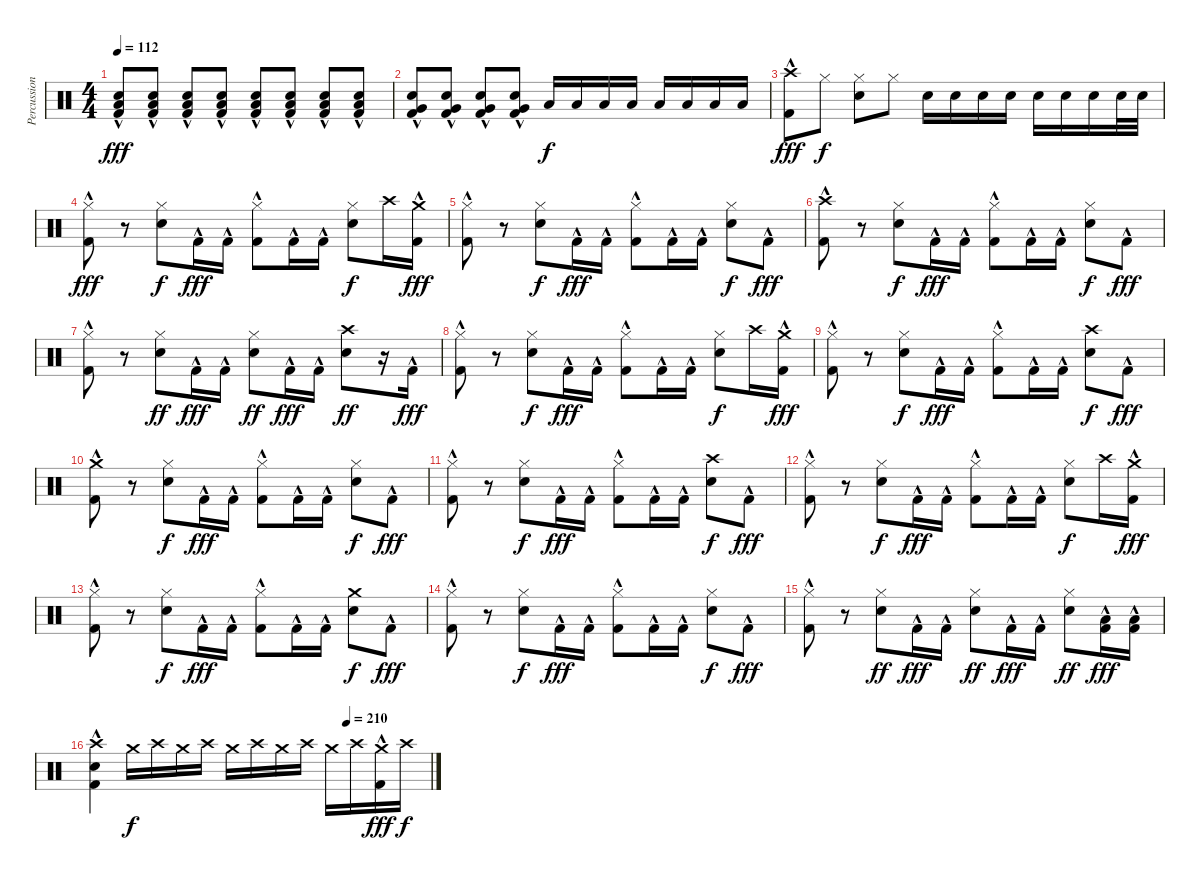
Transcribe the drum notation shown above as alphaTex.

\track ("Percussions" "Percussion") {instrument percussion}
\staff {score}
\articulation defaults
\ts (4 4)
\tempo 112
\clef neutral
\ks c
("Snare (hit) 2" "Low Floor Tom (hit)" "Kick (hit) 2"{hac}).8{dy fff} ("Snare (hit) 2" "Low Floor Tom (hit)" "Kick (hit) 2"{hac}).8 ("Snare (hit) 2" "Low Floor Tom (hit)" "Kick (hit) 2"{hac}).8 ("Snare (hit) 2" "Low Floor Tom (hit)" "Kick (hit) 2"{hac}).8 ("Snare (hit) 2" "Low Floor Tom (hit)" "Kick (hit) 2"{hac}).8 ("Snare (hit) 2" "Low Floor Tom (hit)" "Kick (hit) 2"{hac}).8 ("Snare (hit) 2" "Low Floor Tom (hit)" "Kick (hit) 2"{hac}).8 ("Snare (hit) 2" "Low Floor Tom (hit)" "Kick (hit) 2"{hac}).8 |
("Snare (hit) 2" "Very Low Tom (hit)" "Kick (hit) 2"{hac}).8 ("Snare (hit) 2" "Very Low Tom (hit)" "Kick (hit) 2"{hac}).8 ("Snare (hit) 2" "Very Low Tom (hit)" "Kick (hit) 2"{hac}).8 ("Snare (hit) 2" "Very Low Tom (hit)" "Kick (hit) 2"{hac}).8 "Low Floor Tom (hit)".16{dy f} "Low Floor Tom (hit)".16 "Low Floor Tom (hit)".16 "Low Floor Tom (hit)".16 "Low Floor Tom (hit)".16 "Low Floor Tom (hit)".16 "Low Floor Tom (hit)".16 "Low Floor Tom (hit)".16 |
("Crash high (hit)" "Kick (hit) 2"{hac}).8{dy fff} "Hi-Hat (closed)".8{dy f} ("Hi-Hat (closed)" "Snare (hit) 2").8 "Hi-Hat (closed)".8 "Snare (hit) 2".16 "Snare (hit) 2".16 "Snare (hit) 2".16 "Snare (hit) 2".16 "Snare (hit) 2".16 "Snare (hit) 2".16 "Snare (hit) 2".16 "Snare (hit) 2".32 "Snare (hit) 2".32 |
("Hi-Hat (closed)" "Kick (hit) 2"{hac}).8{dy fff} r.8 ("Hi-Hat (closed)" "Snare (hit) 2").8{dy f} "Kick (hit) 2"{hac}.16{dy fff} "Kick (hit) 2"{hac}.16 ("Hi-Hat (closed)" "Kick (hit) 2"{hac}).8 "Kick (hit) 2"{hac}.16 "Kick (hit) 2"{hac}.16 ("Hi-Hat (closed)" "Snare (hit) 2").8{dy f} "Crash high (hit)".16 ("Crash medium (hit)" "Kick (hit) 2"{hac}).16{dy fff} |
("Hi-Hat (closed)" "Kick (hit) 2"{hac}).8 r.8 ("Hi-Hat (closed)" "Snare (hit) 2").8{dy f} "Kick (hit) 2"{hac}.16{dy fff} "Kick (hit) 2"{hac}.16 ("Hi-Hat (closed)" "Kick (hit) 2"{hac}).8 "Kick (hit) 2"{hac}.16 "Kick (hit) 2"{hac}.16 ("Hi-Hat (closed)" "Snare (hit) 2").8{dy f} "Kick (hit) 2"{hac}.8{dy fff} |
("Crash high (hit)" "Kick (hit) 2"{hac}).8 r.8 ("Hi-Hat (closed)" "Snare (hit) 2").8{dy f} "Kick (hit) 2"{hac}.16{dy fff} "Kick (hit) 2"{hac}.16 ("Hi-Hat (closed)" "Kick (hit) 2"{hac}).8 "Kick (hit) 2"{hac}.16 "Kick (hit) 2"{hac}.16 ("Hi-Hat (closed)" "Snare (hit) 2").8{dy f} "Kick (hit) 2"{hac}.8{dy fff} |
("Hi-Hat (closed)" "Kick (hit) 2"{hac}).8 r.8 ("Hi-Hat (closed)" "Snare (hit) 2").8{dy ff} "Kick (hit) 2"{hac}.16{dy fff} "Kick (hit) 2"{hac}.16 ("Hi-Hat (closed)" "Snare (hit) 2").8{dy ff} "Kick (hit) 2"{hac}.16{dy fff} "Kick (hit) 2"{hac}.16 ("Crash high (hit)" "Snare (hit) 2").8{dy ff} r.16 "Kick (hit) 2"{hac}.16{dy fff} |
("Hi-Hat (closed)" "Kick (hit) 2"{hac}).8 r.8 ("Hi-Hat (closed)" "Snare (hit) 2").8{dy f} "Kick (hit) 2"{hac}.16{dy fff} "Kick (hit) 2"{hac}.16 ("Hi-Hat (closed)" "Kick (hit) 2"{hac}).8 "Kick (hit) 2"{hac}.16 "Kick (hit) 2"{hac}.16 ("Hi-Hat (closed)" "Snare (hit) 2").8{dy f} "Crash high (hit)".16 ("Crash medium (hit)" "Kick (hit) 2"{hac}).16{dy fff} |
("Hi-Hat (closed)" "Kick (hit) 2"{hac}).8 r.8 ("Hi-Hat (closed)" "Snare (hit) 2").8{dy f} "Kick (hit) 2"{hac}.16{dy fff} "Kick (hit) 2"{hac}.16 ("Hi-Hat (closed)" "Kick (hit) 2"{hac}).8 "Kick (hit) 2"{hac}.16 "Kick (hit) 2"{hac}.16 ("Crash high (hit)" "Snare (hit) 2").8{dy f} "Kick (hit) 2"{hac}.8{dy fff} |
("Crash medium (hit)" "Kick (hit) 2"{hac}).8 r.8 ("Hi-Hat (closed)" "Snare (hit) 2").8{dy f} "Kick (hit) 2"{hac}.16{dy fff} "Kick (hit) 2"{hac}.16 ("Hi-Hat (closed)" "Kick (hit) 2"{hac}).8 "Kick (hit) 2"{hac}.16 "Kick (hit) 2"{hac}.16 ("Hi-Hat (closed)" "Snare (hit) 2").8{dy f} "Kick (hit) 2"{hac}.8{dy fff} |
("Hi-Hat (closed)" "Kick (hit) 2"{hac}).8 r.8 ("Hi-Hat (closed)" "Snare (hit) 2").8{dy f} "Kick (hit) 2"{hac}.16{dy fff} "Kick (hit) 2"{hac}.16 ("Hi-Hat (closed)" "Kick (hit) 2"{hac}).8 "Kick (hit) 2"{hac}.16 "Kick (hit) 2"{hac}.16 ("Crash high (hit)" "Snare (hit) 2").8{dy f} "Kick (hit) 2"{hac}.8{dy fff} |
("Hi-Hat (closed)" "Kick (hit) 2"{hac}).8 r.8 ("Hi-Hat (closed)" "Snare (hit) 2").8{dy f} "Kick (hit) 2"{hac}.16{dy fff} "Kick (hit) 2"{hac}.16 ("Hi-Hat (closed)" "Kick (hit) 2"{hac}).8 "Kick (hit) 2"{hac}.16 "Kick (hit) 2"{hac}.16 ("Hi-Hat (closed)" "Snare (hit) 2").8{dy f} "Crash high (hit)".16 ("Crash medium (hit)" "Kick (hit) 2"{hac}).16{dy fff} |
("Hi-Hat (closed)" "Kick (hit) 2"{hac}).8 r.8 ("Hi-Hat (closed)" "Snare (hit) 2").8{dy f} "Kick (hit) 2"{hac}.16{dy fff} "Kick (hit) 2"{hac}.16 ("Hi-Hat (closed)" "Kick (hit) 2"{hac}).8 "Kick (hit) 2"{hac}.16 "Kick (hit) 2"{hac}.16 ("Crash medium (hit)" "Snare (hit) 2").8{dy f} "Kick (hit) 2"{hac}.8{dy fff} |
("Hi-Hat (closed)" "Kick (hit) 2"{hac}).8 r.8 ("Hi-Hat (closed)" "Snare (hit) 2").8{dy f} "Kick (hit) 2"{hac}.16{dy fff} "Kick (hit) 2"{hac}.16 ("Hi-Hat (closed)" "Kick (hit) 2"{hac}).8 "Kick (hit) 2"{hac}.16 "Kick (hit) 2"{hac}.16 ("Hi-Hat (closed)" "Snare (hit) 2").8{dy f} "Kick (hit) 2"{hac}.8{dy fff} |
("Hi-Hat (closed)" "Kick (hit) 2"{hac}).8 r.8 ("Hi-Hat (closed)" "Snare (hit) 2").8{dy ff} "Kick (hit) 2"{hac}.16{dy fff} "Kick (hit) 2"{hac}.16 ("Hi-Hat (closed)" "Snare (hit) 2").8{dy ff} "Kick (hit) 2"{hac}.16{dy fff} "Kick (hit) 2"{hac}.16 ("Hi-Hat (closed)" "Snare (hit) 2").8{dy ff} ("Low Floor Tom (hit)" "Kick (hit) 2"{hac}).16{dy fff} ("Low Floor Tom (hit)" "Kick (hit) 2"{hac}).16 |
\tempo (210 0.75)
("Crash high (hit)" "Snare (hit) 2" "Kick (hit) 2"{hac}).4 "Crash medium (hit)".16{dy f} "Crash high (hit)".16 "Crash medium (hit)".16 "Crash high (hit)".16 "Crash medium (hit)".16 "Crash high (hit)".16 "Crash medium (hit)".16 "Crash high (hit)".16 "Crash medium (hit)".16 "Crash high (hit)".16 ("Crash medium (hit)" "Kick (hit) 2"{hac}).16{dy fff} "Crash high (hit)".16{dy f}
